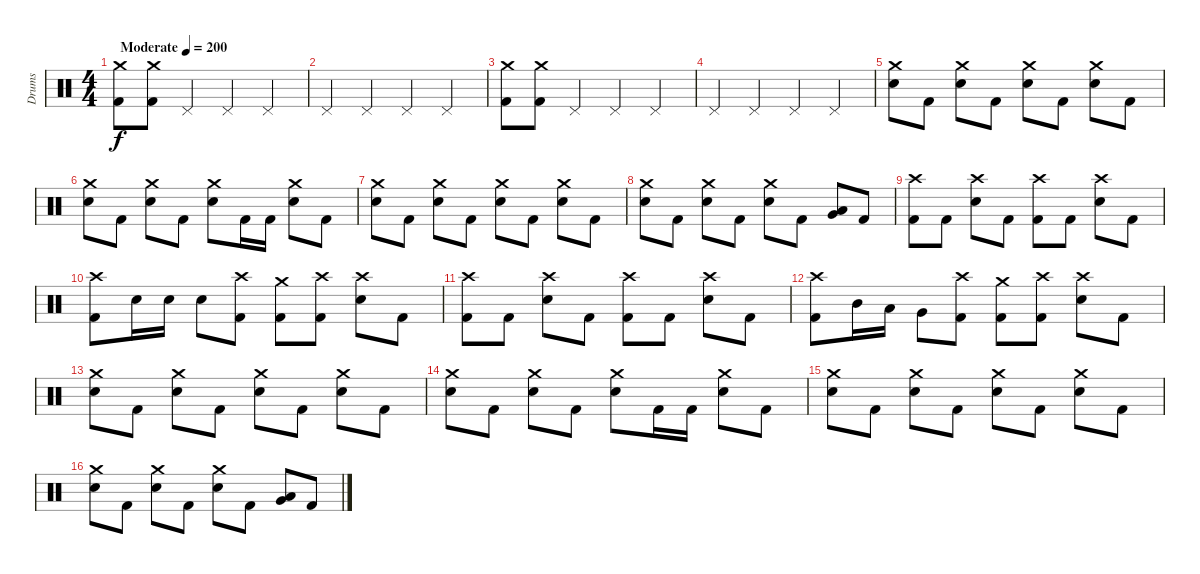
\track ("Drums" "Drums") {instrument percussion}
\staff {score}
\articulation defaults
\ts (4 4)
\tempo (200 "Moderate")
\clef neutral
\ks c
("Crash medium (hit)" "Kick (hit) 2").8{dy f} ("Crash medium (hit)" "Kick (hit) 2").8 "Pedal Hi-Hat (hit)".4 "Pedal Hi-Hat (hit)".4 "Pedal Hi-Hat (hit)".4 |
"Pedal Hi-Hat (hit)".4 "Pedal Hi-Hat (hit)".4 "Pedal Hi-Hat (hit)".4 "Pedal Hi-Hat (hit)".4 |
("Crash medium (hit)" "Kick (hit) 2").8 ("Crash medium (hit)" "Kick (hit) 2").8 "Pedal Hi-Hat (hit)".4 "Pedal Hi-Hat (hit)".4 "Pedal Hi-Hat (hit)".4 |
"Pedal Hi-Hat (hit)".4 "Pedal Hi-Hat (hit)".4 "Pedal Hi-Hat (hit)".4 "Pedal Hi-Hat (hit)".4 |
("Crash medium (hit)" "Electric Snare (hit)").8 "Kick (hit) 2".8 ("Crash medium (hit)" "Electric Snare (hit)").8 "Kick (hit) 2".8 ("Crash medium (hit)" "Electric Snare (hit)").8 "Kick (hit) 2".8 ("Crash medium (hit)" "Electric Snare (hit)").8 "Kick (hit) 2".8 |
("Crash medium (hit)" "Electric Snare (hit)").8 "Kick (hit) 2".8 ("Crash medium (hit)" "Electric Snare (hit)").8 "Kick (hit) 2".8 ("Crash medium (hit)" "Electric Snare (hit)").8 "Kick (hit) 2".16 "Kick (hit) 2".16 ("Crash medium (hit)" "Electric Snare (hit)").8 "Kick (hit) 2".8 |
("Crash medium (hit)" "Electric Snare (hit)").8 "Kick (hit) 2".8 ("Crash medium (hit)" "Electric Snare (hit)").8 "Kick (hit) 2".8 ("Crash medium (hit)" "Electric Snare (hit)").8 "Kick (hit) 2".8 ("Crash medium (hit)" "Electric Snare (hit)").8 "Kick (hit) 2".8 |
("Crash medium (hit)" "Electric Snare (hit)").8 "Kick (hit) 2".8 ("Crash medium (hit)" "Electric Snare (hit)").8 "Kick (hit) 2".8 ("Crash medium (hit)" "Electric Snare (hit)").8 "Kick (hit) 2".8 ("Low Tom (hit)" "Very Low Tom (hit)").8 "Kick (hit) 2".8 |
("Crash high (hit)" "Kick (hit) 2").8 "Kick (hit) 2".8 ("Crash high (hit)" "Electric Snare (hit)").8 "Kick (hit) 2".8 ("Crash high (hit)" "Kick (hit) 2").8 "Kick (hit) 2".8 ("Crash high (hit)" "Electric Snare (hit)").8 "Kick (hit) 2".8 |
("Crash high (hit)" "Kick (hit) 2").8 "Electric Snare (hit)".16 "Electric Snare (hit)".16 "Electric Snare (hit)".8 ("Crash high (hit)" "Kick (hit) 2").8 ("Crash medium (hit)" "Kick (hit) 2").8 ("Crash high (hit)" "Kick (hit) 2").8 ("Crash high (hit)" "Electric Snare (hit)").8 "Kick (hit) 2".8 |
("Crash high (hit)" "Kick (hit) 2").8 "Kick (hit) 2".8 ("Crash high (hit)" "Electric Snare (hit)").8 "Kick (hit) 2".8 ("Crash high (hit)" "Kick (hit) 2").8 "Kick (hit) 2".8 ("Crash high (hit)" "Electric Snare (hit)").8 "Kick (hit) 2".8 |
("Crash high (hit)" "Kick (hit) 2").8 "Mid Tom (hit)".16 "Low Tom (hit)".16 "Very Low Tom (hit)".8 ("Crash high (hit)" "Kick (hit) 2").8 ("Crash medium (hit)" "Kick (hit) 2").8 ("Crash high (hit)" "Kick (hit) 2").8 ("Crash high (hit)" "Electric Snare (hit)").8 "Kick (hit) 2".8 |
("Crash medium (hit)" "Electric Snare (hit)").8 "Kick (hit) 2".8 ("Crash medium (hit)" "Electric Snare (hit)").8 "Kick (hit) 2".8 ("Crash medium (hit)" "Electric Snare (hit)").8 "Kick (hit) 2".8 ("Crash medium (hit)" "Electric Snare (hit)").8 "Kick (hit) 2".8 |
("Crash medium (hit)" "Electric Snare (hit)").8 "Kick (hit) 2".8 ("Crash medium (hit)" "Electric Snare (hit)").8 "Kick (hit) 2".8 ("Crash medium (hit)" "Electric Snare (hit)").8 "Kick (hit) 2".16 "Kick (hit) 2".16 ("Crash medium (hit)" "Electric Snare (hit)").8 "Kick (hit) 2".8 |
("Crash medium (hit)" "Electric Snare (hit)").8 "Kick (hit) 2".8 ("Crash medium (hit)" "Electric Snare (hit)").8 "Kick (hit) 2".8 ("Crash medium (hit)" "Electric Snare (hit)").8 "Kick (hit) 2".8 ("Crash medium (hit)" "Electric Snare (hit)").8 "Kick (hit) 2".8 |
("Crash medium (hit)" "Electric Snare (hit)").8 "Kick (hit) 2".8 ("Crash medium (hit)" "Electric Snare (hit)").8 "Kick (hit) 2".8 ("Crash medium (hit)" "Electric Snare (hit)").8 "Kick (hit) 2".8 ("Low Tom (hit)" "Very Low Tom (hit)").8 "Kick (hit) 2".8
